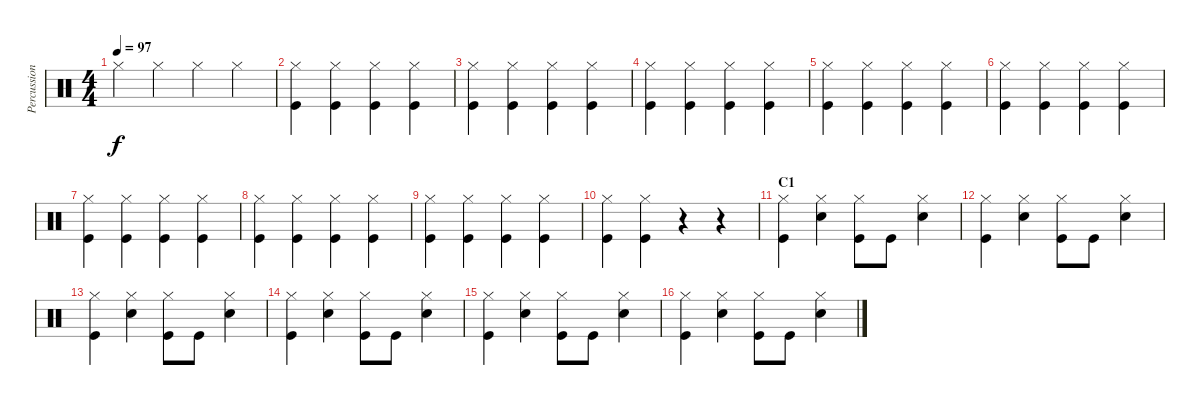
\track ("Percussion" "Percussion") {instrument percussion}
\staff {score}
\articulation defaults
\ts (4 4)
\tempo 97
\clef neutral
\ks c "Hi-Hat (closed)".4{dy f} "Hi-Hat (closed)".4 "Hi-Hat (closed)".4 "Hi-Hat (closed)".4
|
("Hi-Hat (closed)" "Kick (hit)").4 ("Hi-Hat (closed)" "Kick (hit)").4 ("Hi-Hat (closed)" "Kick (hit)").4 ("Hi-Hat (closed)" "Kick (hit)").4 |
("Hi-Hat (closed)" "Kick (hit)").4 ("Hi-Hat (closed)" "Kick (hit)").4 ("Hi-Hat (closed)" "Kick (hit)").4 ("Hi-Hat (closed)" "Kick (hit)").4 |
("Hi-Hat (closed)" "Kick (hit)").4 ("Hi-Hat (closed)" "Kick (hit)").4 ("Hi-Hat (closed)" "Kick (hit)").4 ("Hi-Hat (closed)" "Kick (hit)").4 |
("Hi-Hat (closed)" "Kick (hit)").4 ("Hi-Hat (closed)" "Kick (hit)").4 ("Hi-Hat (closed)" "Kick (hit)").4 ("Hi-Hat (closed)" "Kick (hit)").4 |
("Hi-Hat (closed)" "Kick (hit)").4 ("Hi-Hat (closed)" "Kick (hit)").4 ("Hi-Hat (closed)" "Kick (hit)").4 ("Hi-Hat (closed)" "Kick (hit)").4 |
("Hi-Hat (closed)" "Kick (hit)").4 ("Hi-Hat (closed)" "Kick (hit)").4 ("Hi-Hat (closed)" "Kick (hit)").4 ("Hi-Hat (closed)" "Kick (hit)").4 |
("Hi-Hat (closed)" "Kick (hit)").4 ("Hi-Hat (closed)" "Kick (hit)").4 ("Hi-Hat (closed)" "Kick (hit)").4 ("Hi-Hat (closed)" "Kick (hit)").4 |
("Hi-Hat (closed)" "Kick (hit)").4 ("Hi-Hat (closed)" "Kick (hit)").4 ("Hi-Hat (closed)" "Kick (hit)").4 ("Hi-Hat (closed)" "Kick (hit)").4 |
("Hi-Hat (closed)" "Kick (hit)").4 ("Hi-Hat (closed)" "Kick (hit)").4 r.4 r.4 |
\section ("" "C1")
("Hi-Hat (closed)" "Kick (hit)").4 ("Hi-Hat (closed)" "Snare (hit) 2").4 ("Hi-Hat (closed)" "Kick (hit)").8 "Kick (hit)".8 ("Hi-Hat (closed)" "Snare (hit) 2").4 |
("Hi-Hat (closed)" "Kick (hit)").4 ("Hi-Hat (closed)" "Snare (hit) 2").4 ("Hi-Hat (closed)" "Kick (hit)").8 "Kick (hit)".8 ("Hi-Hat (closed)" "Snare (hit) 2").4 |
("Hi-Hat (closed)" "Kick (hit)").4 ("Hi-Hat (closed)" "Snare (hit) 2").4 ("Hi-Hat (closed)" "Kick (hit)").8 "Kick (hit)".8 ("Hi-Hat (closed)" "Snare (hit) 2").4 |
("Hi-Hat (closed)" "Kick (hit)").4 ("Hi-Hat (closed)" "Snare (hit) 2").4 ("Hi-Hat (closed)" "Kick (hit)").8 "Kick (hit)".8 ("Hi-Hat (closed)" "Snare (hit) 2").4 |
("Hi-Hat (closed)" "Kick (hit)").4 ("Hi-Hat (closed)" "Snare (hit) 2").4 ("Hi-Hat (closed)" "Kick (hit)").8 "Kick (hit)".8 ("Hi-Hat (closed)" "Snare (hit) 2").4 |
("Hi-Hat (closed)" "Kick (hit)").4 ("Hi-Hat (closed)" "Snare (hit) 2").4 ("Hi-Hat (closed)" "Kick (hit)").8 "Kick (hit)".8 ("Hi-Hat (closed)" "Snare (hit) 2").4
